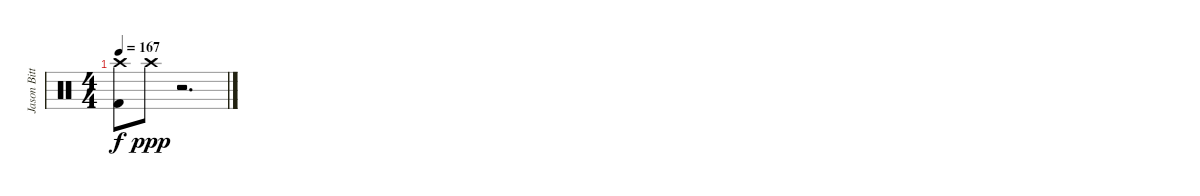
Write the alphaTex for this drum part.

\track ("Jason Bittner" "Jason Bitt") {instrument percussion}
\staff {score}
\articulation defaults
\ts (4 4)
\tempo 167
\clef neutral
\ks c
("Crash high (hit)" "Kick (hit) 2").8{dy f} "Crash high (hit)".8{dy ppp} r.2{d}
